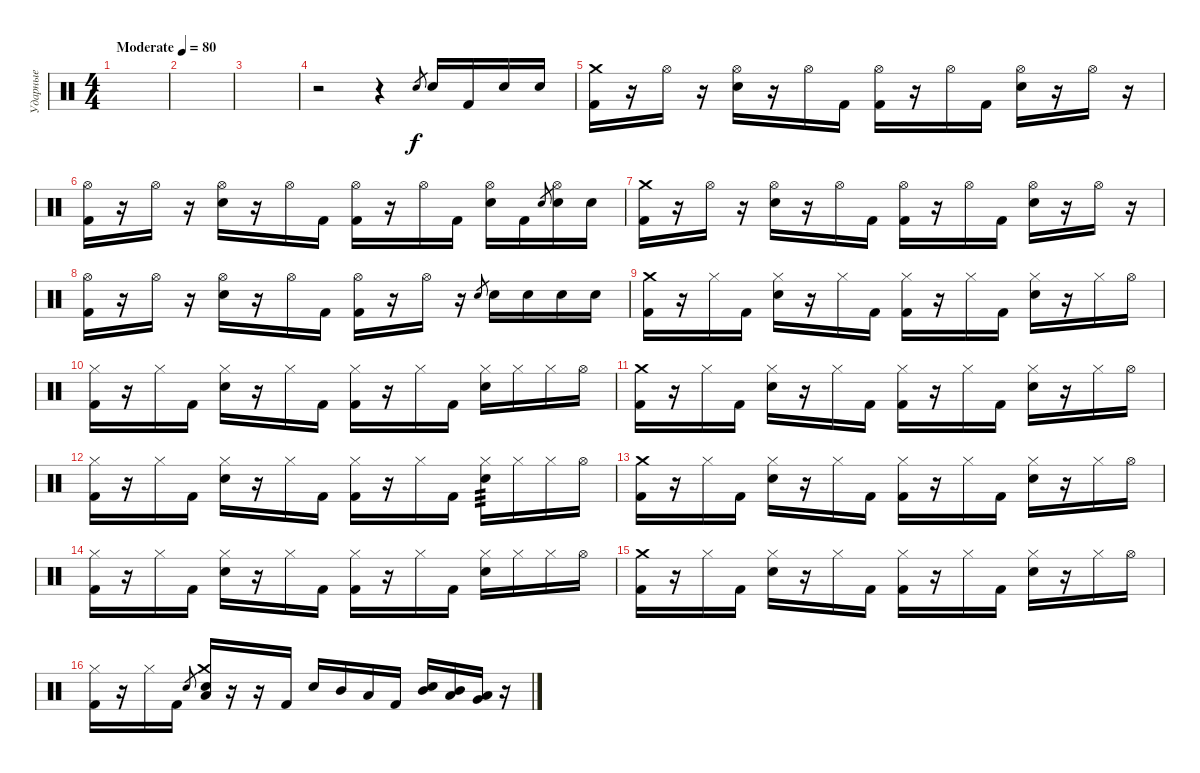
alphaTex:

\track ("Ударные" "Ударные") {instrument percussion}
\staff {score}
\articulation defaults
\ts (4 4)
\tempo (80 "Moderate")
\clef neutral
\ks c
|
|
|
r.2 r.4 "Snare (hit) 2".8{gr} "Snare (hit) 2".16 "Kick (hit) 2".16 "Snare (hit) 2".16 "Snare (hit) 2".16 |
("Crash medium (hit)" "Kick (hit) 2").16 r.16 "Hi-Hat (open)".16 r.16 ("Hi-Hat (open)" "Snare (hit) 2").16 r.16 "Hi-Hat (open)".16 "Kick (hit) 2".16 ("Hi-Hat (open)" "Kick (hit) 2").16 r.16 "Hi-Hat (open)".16 "Kick (hit) 2".16 ("Hi-Hat (open)" "Snare (hit) 2").16 r.16 "Hi-Hat (open)".16 r.16 |
("Hi-Hat (open)" "Kick (hit) 2").16 r.16 "Hi-Hat (open)".16 r.16 ("Hi-Hat (open)" "Snare (hit) 2").16 r.16 "Hi-Hat (open)".16 "Kick (hit) 2".16 ("Hi-Hat (open)" "Kick (hit) 2").16 r.16 "Hi-Hat (open)".16 "Kick (hit) 2".16 ("Hi-Hat (open)" "Snare (hit) 2").16 "Kick (hit) 2".16 "Snare (hit) 2".8{gr} ("Hi-Hat (open)" "Snare (hit) 2").16 "Snare (hit) 2".16 |
("Crash medium (hit)" "Kick (hit) 2").16 r.16 "Hi-Hat (open)".16 r.16 ("Hi-Hat (open)" "Snare (hit) 2").16 r.16 "Hi-Hat (open)".16 "Kick (hit) 2".16 ("Hi-Hat (open)" "Kick (hit) 2").16 r.16 "Hi-Hat (open)".16 "Kick (hit) 2".16 ("Hi-Hat (open)" "Snare (hit) 2").16 r.16 "Hi-Hat (open)".16 r.16 |
("Hi-Hat (open)" "Kick (hit) 2").16 r.16 "Hi-Hat (open)".16 r.16 ("Hi-Hat (open)" "Snare (hit) 2").16 r.16 "Hi-Hat (open)".16 "Kick (hit) 2".16 ("Hi-Hat (open)" "Kick (hit) 2").16 r.16 "Hi-Hat (open)".16 r.16 "Snare (hit) 2".8{gr} "Snare (hit) 2".16 "Snare (hit) 2".16 "Snare (hit) 2".16 "Snare (hit) 2".16 |
("Crash medium (hit)" "Kick (hit) 2").16 r.16 "Hi-Hat (closed)".16 "Kick (hit) 2".16 ("Hi-Hat (closed)" "Snare (hit) 2").16 r.16 "Hi-Hat (closed)".16 "Kick (hit) 2".16 ("Hi-Hat (closed)" "Kick (hit) 2").16 r.16 "Hi-Hat (closed)".16 "Kick (hit) 2".16 ("Hi-Hat (closed)" "Snare (hit) 2").16 r.16 "Hi-Hat (closed)".16 "Hi-Hat (open)".16 |
("Hi-Hat (closed)" "Kick (hit) 2").16 r.16 "Hi-Hat (closed)".16 "Kick (hit) 2".16 ("Hi-Hat (closed)" "Snare (hit) 2").16 r.16 "Hi-Hat (closed)".16 "Kick (hit) 2".16 ("Hi-Hat (closed)" "Kick (hit) 2").16 r.16 "Hi-Hat (closed)".16 "Kick (hit) 2".16 ("Hi-Hat (closed)" "Snare (hit) 2").16 "Hi-Hat (closed)".16 "Hi-Hat (closed)".16 "Hi-Hat (open)".16 |
("Crash medium (hit)" "Kick (hit) 2").16 r.16 "Hi-Hat (closed)".16 "Kick (hit) 2".16 ("Hi-Hat (closed)" "Snare (hit) 2").16 r.16 "Hi-Hat (closed)".16 "Kick (hit) 2".16 ("Hi-Hat (closed)" "Kick (hit) 2").16 r.16 "Hi-Hat (closed)".16 "Kick (hit) 2".16 ("Hi-Hat (closed)" "Snare (hit) 2").16 r.16 "Hi-Hat (closed)".16 "Hi-Hat (open)".16 |
("Hi-Hat (closed)" "Kick (hit) 2").16 r.16 "Hi-Hat (closed)".16 "Kick (hit) 2".16 ("Hi-Hat (closed)" "Snare (hit) 2").16 r.16 "Hi-Hat (closed)".16 "Kick (hit) 2".16 ("Hi-Hat (closed)" "Kick (hit) 2").16 r.16 "Hi-Hat (closed)".16 "Kick (hit) 2".16 ("Hi-Hat (closed)" "Snare (hit) 2").16{tp 3} "Hi-Hat (closed)".16 "Hi-Hat (closed)".16 "Hi-Hat (open)".16 |
("Crash medium (hit)" "Kick (hit) 2").16 r.16 "Hi-Hat (closed)".16 "Kick (hit) 2".16 ("Hi-Hat (closed)" "Snare (hit) 2").16 r.16 "Hi-Hat (closed)".16 "Kick (hit) 2".16 ("Hi-Hat (closed)" "Kick (hit) 2").16 r.16 "Hi-Hat (closed)".16 "Kick (hit) 2".16 ("Hi-Hat (closed)" "Snare (hit) 2").16 r.16 "Hi-Hat (closed)".16 "Hi-Hat (open)".16 |
("Hi-Hat (closed)" "Kick (hit) 2").16 r.16 "Hi-Hat (closed)".16 "Kick (hit) 2".16 ("Hi-Hat (closed)" "Snare (hit) 2").16 r.16 "Hi-Hat (closed)".16 "Kick (hit) 2".16 ("Hi-Hat (closed)" "Kick (hit) 2").16 r.16 "Hi-Hat (closed)".16 "Kick (hit) 2".16 ("Hi-Hat (closed)" "Snare (hit) 2").16 "Hi-Hat (closed)".16 "Hi-Hat (closed)".16 "Hi-Hat (open)".16 |
("Crash medium (hit)" "Kick (hit) 2").16 r.16 "Hi-Hat (closed)".16 "Kick (hit) 2".16 ("Hi-Hat (closed)" "Snare (hit) 2").16 r.16 "Hi-Hat (closed)".16 "Kick (hit) 2".16 ("Hi-Hat (closed)" "Kick (hit) 2").16 r.16 "Hi-Hat (closed)".16 "Kick (hit) 2".16 ("Hi-Hat (closed)" "Snare (hit) 2").16 r.16 "Hi-Hat (closed)".16 "Hi-Hat (open)".16 |
("Hi-Hat (closed)" "Kick (hit) 2").16 r.16 "Hi-Hat (closed)".16 "Kick (hit) 2".16 "Snare (hit) 2".8{gr} ("Crash medium (hit)" "Snare (hit) 2" "Low Floor Tom (hit)").16 r.16 r.16 "Kick (hit) 2".16 "Snare (hit) 2".16 "Mid Tom (hit)".16 "Low Tom (hit)".16 "Kick (hit) 2".16 ("Snare (hit) 2" "Mid Tom (hit)").16 ("Mid Tom (hit)" "Low Tom (hit)").16 ("Very Low Tom (hit)" "Low Floor Tom (hit)").16 r.16
